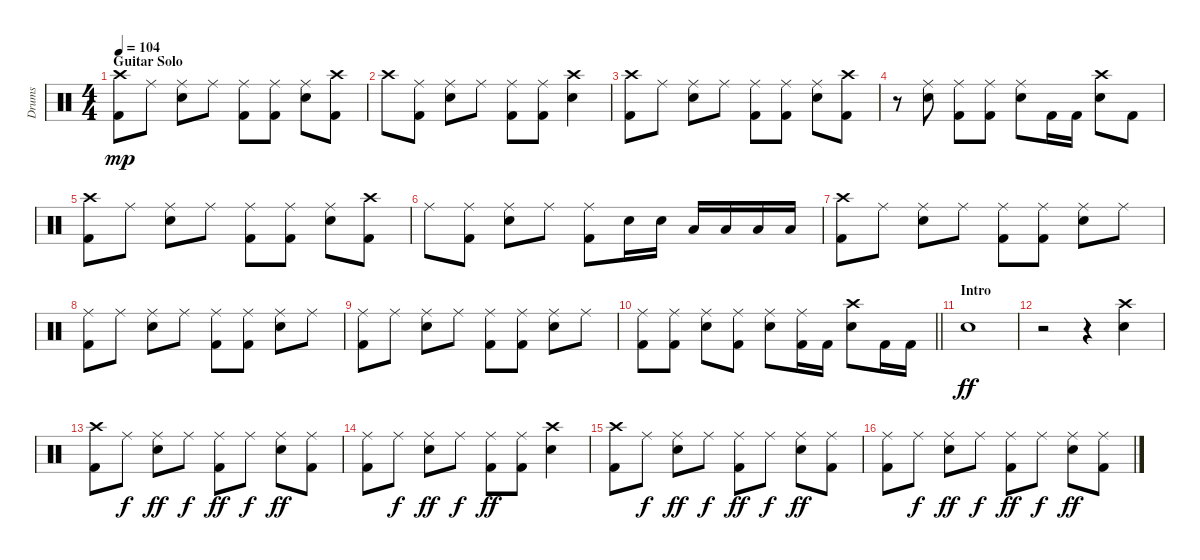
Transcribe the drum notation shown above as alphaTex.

\track ("Drums" "Drums") {instrument percussion}
\staff {score}
\articulation defaults
\ts (4 4)
\section ("" "Guitar Solo")
\tempo 104
\clef neutral
\ks c
("Crash high (hit)" "Kick (hit) 2").8{dy mp} "Ride (middle)".8 ("Ride (middle)" "Snare (hit) 2").8 "Ride (middle)".8 ("Ride (middle)" "Kick (hit) 2").8 ("Ride (middle)" "Kick (hit) 2").8 ("Ride (middle)" "Snare (hit) 2").8 ("Crash high (hit)" "Kick (hit) 2").8 |
"Crash high (hit)".8 ("Ride (middle)" "Kick (hit) 2").8 ("Ride (middle)" "Snare (hit) 2").8 "Ride (middle)".8 ("Ride (middle)" "Kick (hit) 2").8 ("Ride (middle)" "Kick (hit) 2").8 ("Crash high (hit)" "Snare (hit) 2").4 |
("Crash high (hit)" "Kick (hit) 2").8 "Ride (middle)".8 ("Ride (middle)" "Snare (hit) 2").8 "Ride (middle)".8 ("Ride (middle)" "Kick (hit) 2").8 ("Ride (middle)" "Kick (hit) 2").8 ("Ride (middle)" "Snare (hit) 2").8 ("Crash high (hit)" "Kick (hit) 2").8 |
r.8 ("Ride (middle)" "Snare (hit) 2").8 ("Ride (middle)" "Kick (hit) 2").8 ("Ride (middle)" "Kick (hit) 2").8 ("Ride (middle)" "Snare (hit) 2").8 "Kick (hit) 2".16 "Kick (hit) 2".16 ("Crash high (hit)" "Snare (hit) 2").8 "Kick (hit) 2".8 |
("Crash high (hit)" "Kick (hit) 2").8 "Ride (middle)".8 ("Ride (middle)" "Snare (hit) 2").8 "Ride (middle)".8 ("Ride (middle)" "Kick (hit) 2").8 ("Ride (middle)" "Kick (hit) 2").8 ("Ride (middle)" "Snare (hit) 2").8 ("Crash high (hit)" "Kick (hit) 2").8 |
"Ride (middle)".8 ("Ride (middle)" "Kick (hit) 2").8 ("Ride (middle)" "Snare (hit) 2").8 "Ride (middle)".8 ("Ride (middle)" "Kick (hit) 2").8 "Snare (hit) 2".16 "Snare (hit) 2".16 "Low Tom (hit)".16 "Low Tom (hit)".16 "Low Floor Tom (hit)".16 "Low Floor Tom (hit)".16 |
("Crash high (hit)" "Kick (hit) 2").8 "Ride (middle)".8 ("Ride (middle)" "Snare (hit) 2").8 "Ride (middle)".8 ("Ride (middle)" "Kick (hit) 2").8 ("Ride (middle)" "Kick (hit) 2").8 ("Ride (middle)" "Snare (hit) 2").8 "Ride (middle)".8 |
("Ride (middle)" "Kick (hit) 2").8 "Ride (middle)".8 ("Ride (middle)" "Snare (hit) 2").8 "Ride (middle)".8 ("Ride (middle)" "Kick (hit) 2").8 ("Ride (middle)" "Kick (hit) 2").8 ("Ride (middle)" "Snare (hit) 2").8 "Ride (middle)".8 |
("Ride (middle)" "Kick (hit) 2").8 "Ride (middle)".8 ("Ride (middle)" "Snare (hit) 2").8 "Ride (middle)".8 ("Ride (middle)" "Kick (hit) 2").8 ("Ride (middle)" "Kick (hit) 2").8 ("Ride (middle)" "Snare (hit) 2").8 "Ride (middle)".8 |
\barLineRight lightlight
("Ride (middle)" "Kick (hit) 2").8 ("Ride (middle)" "Kick (hit) 2").8 ("Ride (middle)" "Snare (hit) 2").8 ("Ride (middle)" "Kick (hit) 2").8 ("Ride (middle)" "Snare (hit) 2").8 ("Ride (middle)" "Kick (hit) 2").16 "Kick (hit) 2".16 ("Crash high (hit)" "Snare (hit) 2").8 "Kick (hit) 2".16 "Kick (hit) 2".16 |
\section ("" "Intro")
"Snare (hit) 2".1{dy ff} |
r.2 r.4 ("Crash high (hit)" "Snare (hit) 2").4 |
("Crash high (hit)" "Kick (hit) 2").8 "Ride (middle)".8{dy f} ("Ride (middle)" "Snare (hit) 2").8{dy ff} "Ride (middle)".8{dy f} ("Ride (middle)" "Kick (hit) 2").8{dy ff} "Ride (middle)".8{dy f} ("Ride (middle)" "Snare (hit) 2").8{dy ff} ("Ride (middle)" "Kick (hit) 2").8 |
("Ride (middle)" "Kick (hit) 2").8 "Ride (middle)".8{dy f} ("Ride (middle)" "Snare (hit) 2").8{dy ff} "Ride (middle)".8{dy f} ("Ride (middle)" "Kick (hit) 2").8{dy ff} ("Ride (middle)" "Kick (hit) 2").8 ("Crash high (hit)" "Snare (hit) 2").4 |
("Crash high (hit)" "Kick (hit) 2").8 "Ride (middle)".8{dy f} ("Ride (middle)" "Snare (hit) 2").8{dy ff} "Ride (middle)".8{dy f} ("Ride (middle)" "Kick (hit) 2").8{dy ff} "Ride (middle)".8{dy f} ("Ride (middle)" "Snare (hit) 2").8{dy ff} ("Ride (middle)" "Kick (hit) 2").8 |
("Ride (middle)" "Kick (hit) 2").8 "Ride (middle)".8{dy f} ("Ride (middle)" "Snare (hit) 2").8{dy ff} "Ride (middle)".8{dy f} ("Ride (middle)" "Kick (hit) 2").8{dy ff} "Ride (middle)".8{dy f} ("Ride (middle)" "Snare (hit) 2").8{dy ff} ("Ride (middle)" "Kick (hit) 2").8
